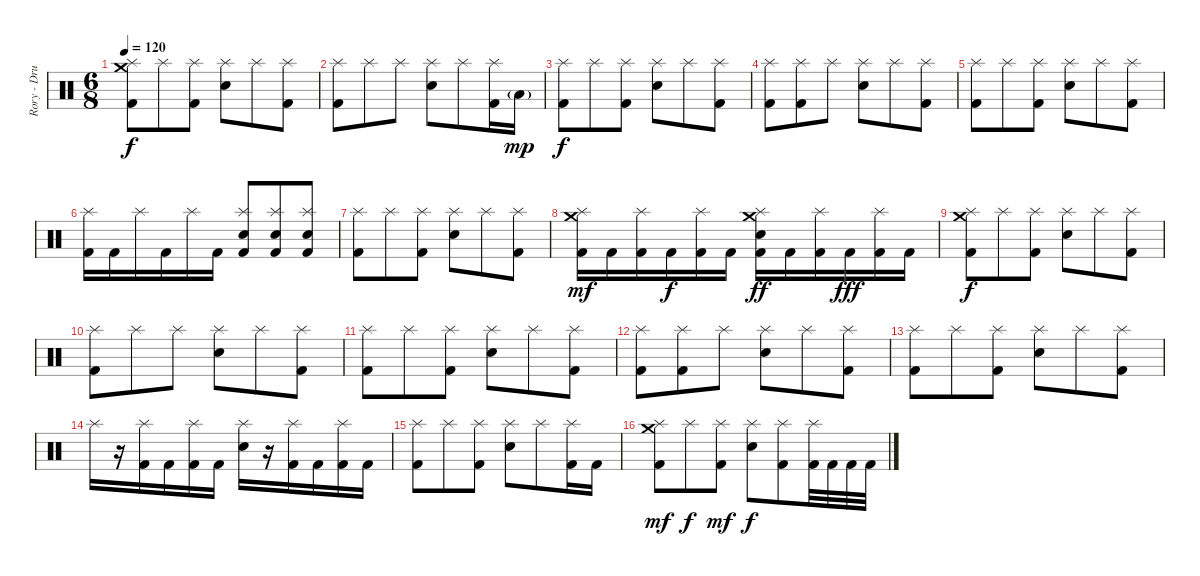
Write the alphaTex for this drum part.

\track ("Rory - Drums" "Rory - Dru") {instrument percussion}
\staff {score}
\articulation defaults
\ts (6 8)
\tempo 120
\clef neutral
\ks c
("Kick (hit) 2" "Splash (hit)" "Crash medium (hit)").8{dy f} "Splash (hit)".8 ("Kick (hit) 2" "Splash (hit)").8 ("Electric Snare (hit)" "Splash (hit)").8 "Splash (hit)".8 ("Kick (hit) 2" "Splash (hit)").8 |
("Kick (hit) 2" "Splash (hit)").8 "Splash (hit)".8 "Splash (hit)".8 ("Electric Snare (hit)" "Splash (hit)").8 "Splash (hit)".8 ("Kick (hit) 2" "Splash (hit)").16 "Low Floor Tom (hit)"{g}.16{dy mp} |
("Kick (hit) 2" "Splash (hit)").8{dy f} "Splash (hit)".8 ("Kick (hit) 2" "Splash (hit)").8 ("Electric Snare (hit)" "Splash (hit)").8 "Splash (hit)".8 ("Kick (hit) 2" "Splash (hit)").8 |
("Kick (hit) 2" "Splash (hit)").8 ("Kick (hit) 2" "Splash (hit)").8 "Splash (hit)".8 ("Electric Snare (hit)" "Splash (hit)").8 "Splash (hit)".8 ("Kick (hit) 2" "Splash (hit)").8 |
("Kick (hit) 2" "Splash (hit)").8 "Splash (hit)".8 ("Kick (hit) 2" "Splash (hit)").8 ("Electric Snare (hit)" "Splash (hit)").8 "Splash (hit)".8 ("Kick (hit) 2" "Splash (hit)").8 |
("Kick (hit) 2" "Splash (hit)").16 "Kick (hit) 2".16 "Splash (hit)".16 "Kick (hit) 2".16 "Splash (hit)".16 "Kick (hit) 2".16 ("Kick (hit) 2" "Electric Snare (hit)" "Splash (hit)").8 ("Kick (hit) 2" "Electric Snare (hit)" "Splash (hit)").8 ("Kick (hit) 2" "Electric Snare (hit)" "Splash (hit)").8 |
("Kick (hit) 2" "Splash (hit)").8 "Splash (hit)".8 ("Kick (hit) 2" "Splash (hit)").8 ("Electric Snare (hit)" "Splash (hit)").8 "Splash (hit)".8 ("Kick (hit) 2" "Splash (hit)").8 |
("Kick (hit) 2" "Splash (hit)" "Crash medium (hit)").16{dy mf} "Kick (hit) 2".16 ("Kick (hit) 2" "Splash (hit)").16 "Kick (hit) 2".16{dy f} ("Kick (hit) 2" "Splash (hit)").16 "Kick (hit) 2".16 ("Kick (hit) 2" "Electric Snare (hit)" "Splash (hit)" "Crash medium (hit)").16{dy ff} "Kick (hit) 2".16 ("Kick (hit) 2" "Splash (hit)").16 "Kick (hit) 2".16{dy fff} ("Kick (hit) 2" "Splash (hit)").16 "Kick (hit) 2".16 |
("Kick (hit) 2" "Splash (hit)" "Crash medium (hit)").8{dy f} "Splash (hit)".8 ("Kick (hit) 2" "Splash (hit)").8 ("Electric Snare (hit)" "Splash (hit)").8 "Splash (hit)".8 ("Kick (hit) 2" "Splash (hit)").8 |
("Kick (hit) 2" "Splash (hit)").8 "Splash (hit)".8 "Splash (hit)".8 ("Electric Snare (hit)" "Splash (hit)").8 "Splash (hit)".8 ("Kick (hit) 2" "Splash (hit)").8 |
("Kick (hit) 2" "Splash (hit)").8 "Splash (hit)".8 ("Kick (hit) 2" "Splash (hit)").8 ("Electric Snare (hit)" "Splash (hit)").8 "Splash (hit)".8 ("Kick (hit) 2" "Splash (hit)").8 |
("Kick (hit) 2" "Splash (hit)").8 ("Kick (hit) 2" "Splash (hit)").8 "Splash (hit)".8 ("Electric Snare (hit)" "Splash (hit)").8 "Splash (hit)".8 ("Kick (hit) 2" "Splash (hit)").8 |
("Kick (hit) 2" "Splash (hit)").8 "Splash (hit)".8 ("Kick (hit) 2" "Splash (hit)").8 ("Electric Snare (hit)" "Splash (hit)").8 "Splash (hit)".8 ("Kick (hit) 2" "Splash (hit)").8 |
"Splash (hit)".16 r.16 ("Kick (hit) 2" "Splash (hit)").16 "Kick (hit) 2".16 ("Kick (hit) 2" "Splash (hit)").16 "Kick (hit) 2".16 ("Electric Snare (hit)" "Splash (hit)").16 r.16 ("Kick (hit) 2" "Splash (hit)").16 "Kick (hit) 2".16 ("Kick (hit) 2" "Splash (hit)").16 "Kick (hit) 2".16 |
("Kick (hit) 2" "Splash (hit)").8 "Splash (hit)".8 ("Kick (hit) 2" "Splash (hit)").8 ("Electric Snare (hit)" "Splash (hit)").8 "Splash (hit)".8 ("Kick (hit) 2" "Splash (hit)").16 "Kick (hit) 2".16 |
("Kick (hit) 2" "Splash (hit)" "Crash medium (hit)").8{dy mf} "Splash (hit)".8{dy f} ("Kick (hit) 2" "Splash (hit)").8{dy mf} ("Electric Snare (hit)" "Splash (hit)").8{dy f} ("Kick (hit) 2" "Splash (hit)").8 ("Kick (hit) 2" "Splash (hit)").32 "Kick (hit) 2".32 "Kick (hit) 2".32 "Kick (hit) 2".32
